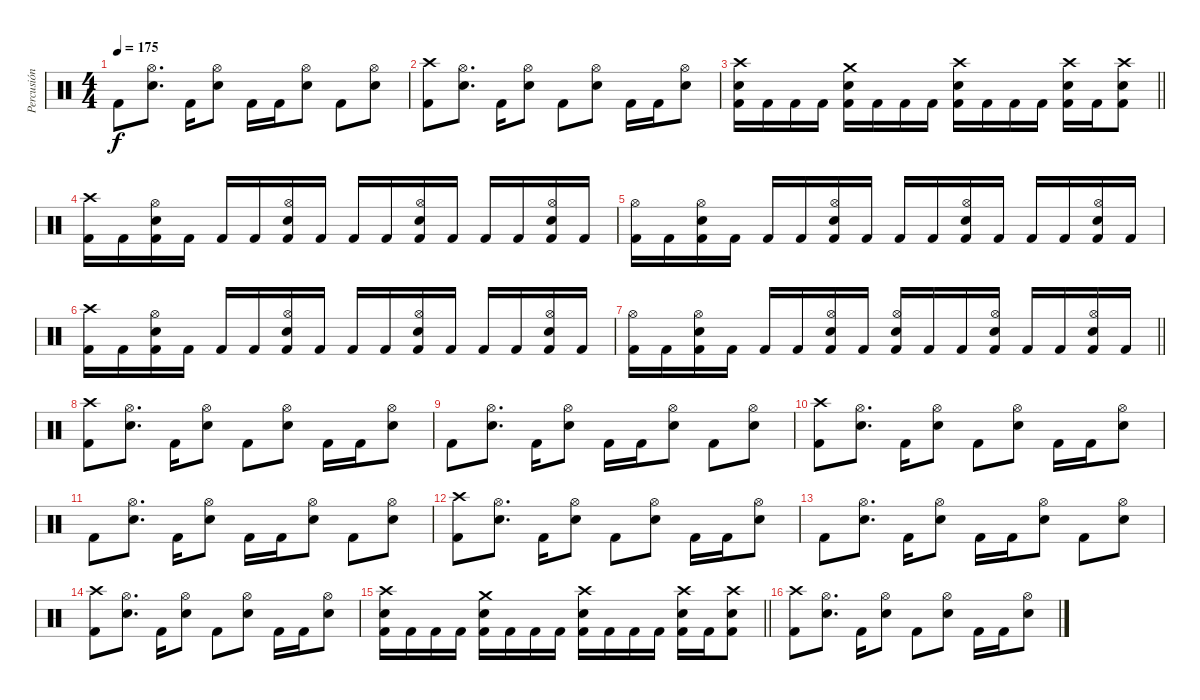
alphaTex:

\track ("Percusión" "Percusión") {instrument percussion}
\staff {score}
\articulation defaults
\ts (4 4)
\tempo 175
\clef neutral
\ks c "Kick (hit) 2".8{dy f}
("Hi-Hat (open)" "Electric Snare (hit)").8{d} "Kick (hit) 2".16 ("Hi-Hat (open)" "Electric Snare (hit)").8 "Kick (hit) 2".16 "Kick (hit) 2".16 ("Hi-Hat (open)" "Electric Snare (hit)").8 "Kick (hit) 2".8 ("Hi-Hat (open)" "Electric Snare (hit)").8 |
("Crash high (hit)" "Kick (hit) 2").8 ("Hi-Hat (open)" "Electric Snare (hit)").8{d} "Kick (hit) 2".16 ("Hi-Hat (open)" "Electric Snare (hit)").8 "Kick (hit) 2".8 ("Hi-Hat (open)" "Electric Snare (hit)").8 "Kick (hit) 2".16 "Kick (hit) 2".16 ("Hi-Hat (open)" "Electric Snare (hit)").8 |
\barLineRight lightlight
("Crash high (hit)" "Electric Snare (hit)" "Kick (hit) 2").16 "Kick (hit) 2".16 "Kick (hit) 2".16 "Kick (hit) 2".16 ("Crash medium (hit)" "Electric Snare (hit)" "Kick (hit) 2").16 "Kick (hit) 2".16 "Kick (hit) 2".16 "Kick (hit) 2".16 ("Crash high (hit)" "Electric Snare (hit)" "Kick (hit) 2").16 "Kick (hit) 2".16 "Kick (hit) 2".16 "Kick (hit) 2".16 ("Crash high (hit)" "Electric Snare (hit)" "Kick (hit) 2").16 "Kick (hit) 2".16 ("Crash high (hit)" "Electric Snare (hit)" "Kick (hit) 2").8 |
("Crash high (hit)" "Kick (hit) 2").16 "Kick (hit) 2".16 ("Hi-Hat (open)" "Electric Snare (hit)" "Kick (hit) 2").16 "Kick (hit) 2".16 "Kick (hit) 2".16 "Kick (hit) 2".16 ("Hi-Hat (open)" "Electric Snare (hit)" "Kick (hit) 2").16 "Kick (hit) 2".16 "Kick (hit) 2".16 "Kick (hit) 2".16 ("Hi-Hat (open)" "Electric Snare (hit)" "Kick (hit) 2").16 "Kick (hit) 2".16 "Kick (hit) 2".16 "Kick (hit) 2".16 ("Hi-Hat (open)" "Electric Snare (hit)" "Kick (hit) 2").16 "Kick (hit) 2".16 |
("Hi-Hat (open)" "Kick (hit) 2").16 "Kick (hit) 2".16 ("Hi-Hat (open)" "Electric Snare (hit)" "Kick (hit) 2").16 "Kick (hit) 2".16 "Kick (hit) 2".16 "Kick (hit) 2".16 ("Hi-Hat (open)" "Electric Snare (hit)" "Kick (hit) 2").16 "Kick (hit) 2".16 "Kick (hit) 2".16 "Kick (hit) 2".16 ("Hi-Hat (open)" "Electric Snare (hit)" "Kick (hit) 2").16 "Kick (hit) 2".16 "Kick (hit) 2".16 "Kick (hit) 2".16 ("Hi-Hat (open)" "Electric Snare (hit)" "Kick (hit) 2").16 "Kick (hit) 2".16 |
("Crash high (hit)" "Kick (hit) 2").16 "Kick (hit) 2".16 ("Hi-Hat (open)" "Electric Snare (hit)" "Kick (hit) 2").16 "Kick (hit) 2".16 "Kick (hit) 2".16 "Kick (hit) 2".16 ("Hi-Hat (open)" "Electric Snare (hit)" "Kick (hit) 2").16 "Kick (hit) 2".16 "Kick (hit) 2".16 "Kick (hit) 2".16 ("Hi-Hat (open)" "Electric Snare (hit)" "Kick (hit) 2").16 "Kick (hit) 2".16 "Kick (hit) 2".16 "Kick (hit) 2".16 ("Hi-Hat (open)" "Electric Snare (hit)" "Kick (hit) 2").16 "Kick (hit) 2".16 |
\barLineRight lightlight
("Hi-Hat (open)" "Kick (hit) 2").16 "Kick (hit) 2".16 ("Hi-Hat (open)" "Electric Snare (hit)" "Kick (hit) 2").16 "Kick (hit) 2".16 "Kick (hit) 2".16 "Kick (hit) 2".16 ("Hi-Hat (open)" "Electric Snare (hit)" "Kick (hit) 2").16 "Kick (hit) 2".16 ("Hi-Hat (open)" "Electric Snare (hit)" "Kick (hit) 2").16 "Kick (hit) 2".16 "Kick (hit) 2".16 ("Hi-Hat (open)" "Electric Snare (hit)" "Kick (hit) 2").16 "Kick (hit) 2".16 "Kick (hit) 2".16 ("Hi-Hat (open)" "Electric Snare (hit)" "Kick (hit) 2").16 "Kick (hit) 2".16 |
("Crash high (hit)" "Kick (hit) 2").8 ("Hi-Hat (open)" "Electric Snare (hit)").8{d} "Kick (hit) 2".16 ("Hi-Hat (open)" "Electric Snare (hit)").8 "Kick (hit) 2".8 ("Hi-Hat (open)" "Electric Snare (hit)").8 "Kick (hit) 2".16 "Kick (hit) 2".16 ("Hi-Hat (open)" "Electric Snare (hit)").8 |
"Kick (hit) 2".8 ("Hi-Hat (open)" "Electric Snare (hit)").8{d} "Kick (hit) 2".16 ("Hi-Hat (open)" "Electric Snare (hit)").8 "Kick (hit) 2".16 "Kick (hit) 2".16 ("Hi-Hat (open)" "Electric Snare (hit)").8 "Kick (hit) 2".8 ("Hi-Hat (open)" "Electric Snare (hit)").8 |
("Crash high (hit)" "Kick (hit) 2").8 ("Hi-Hat (open)" "Electric Snare (hit)").8{d} "Kick (hit) 2".16 ("Hi-Hat (open)" "Electric Snare (hit)").8 "Kick (hit) 2".8 ("Hi-Hat (open)" "Electric Snare (hit)").8 "Kick (hit) 2".16 "Kick (hit) 2".16 ("Hi-Hat (open)" "Electric Snare (hit)").8 |
"Kick (hit) 2".8 ("Hi-Hat (open)" "Electric Snare (hit)").8{d} "Kick (hit) 2".16 ("Hi-Hat (open)" "Electric Snare (hit)").8 "Kick (hit) 2".16 "Kick (hit) 2".16 ("Hi-Hat (open)" "Electric Snare (hit)").8 "Kick (hit) 2".8 ("Hi-Hat (open)" "Electric Snare (hit)").8 |
("Crash high (hit)" "Kick (hit) 2").8 ("Hi-Hat (open)" "Electric Snare (hit)").8{d} "Kick (hit) 2".16 ("Hi-Hat (open)" "Electric Snare (hit)").8 "Kick (hit) 2".8 ("Hi-Hat (open)" "Electric Snare (hit)").8 "Kick (hit) 2".16 "Kick (hit) 2".16 ("Hi-Hat (open)" "Electric Snare (hit)").8 |
"Kick (hit) 2".8 ("Hi-Hat (open)" "Electric Snare (hit)").8{d} "Kick (hit) 2".16 ("Hi-Hat (open)" "Electric Snare (hit)").8 "Kick (hit) 2".16 "Kick (hit) 2".16 ("Hi-Hat (open)" "Electric Snare (hit)").8 "Kick (hit) 2".8 ("Hi-Hat (open)" "Electric Snare (hit)").8 |
("Crash high (hit)" "Kick (hit) 2").8 ("Hi-Hat (open)" "Electric Snare (hit)").8{d} "Kick (hit) 2".16 ("Hi-Hat (open)" "Electric Snare (hit)").8 "Kick (hit) 2".8 ("Hi-Hat (open)" "Electric Snare (hit)").8 "Kick (hit) 2".16 "Kick (hit) 2".16 ("Hi-Hat (open)" "Electric Snare (hit)").8 |
\barLineRight lightlight
("Crash high (hit)" "Electric Snare (hit)" "Kick (hit) 2").16 "Kick (hit) 2".16 "Kick (hit) 2".16 "Kick (hit) 2".16 ("Crash medium (hit)" "Electric Snare (hit)" "Kick (hit) 2").16 "Kick (hit) 2".16 "Kick (hit) 2".16 "Kick (hit) 2".16 ("Crash high (hit)" "Electric Snare (hit)" "Kick (hit) 2").16 "Kick (hit) 2".16 "Kick (hit) 2".16 "Kick (hit) 2".16 ("Crash high (hit)" "Electric Snare (hit)" "Kick (hit) 2").16 "Kick (hit) 2".16 ("Crash high (hit)" "Electric Snare (hit)" "Kick (hit) 2").8 |
("Crash high (hit)" "Kick (hit) 2").8 ("Hi-Hat (open)" "Electric Snare (hit)").8{d} "Kick (hit) 2".16 ("Hi-Hat (open)" "Electric Snare (hit)").8 "Kick (hit) 2".8 ("Hi-Hat (open)" "Electric Snare (hit)").8 "Kick (hit) 2".16 "Kick (hit) 2".16 ("Hi-Hat (open)" "Electric Snare (hit)").8
